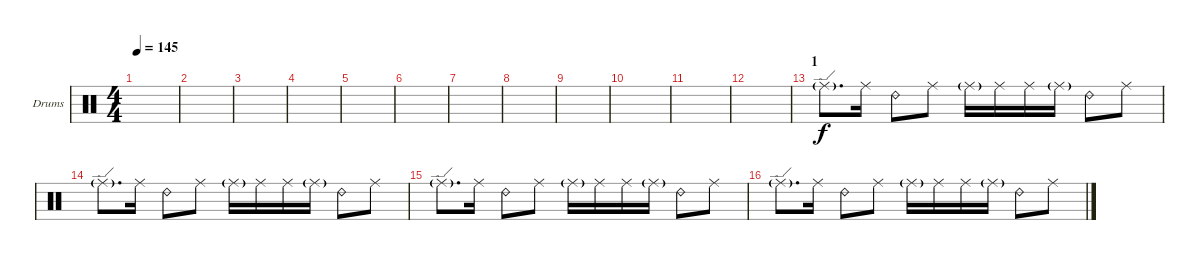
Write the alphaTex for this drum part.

\defaultSystemsLayout 4
\bracketExtendMode groupsimilarinstruments
\firstSystemTrackNameOrientation horizontal
\otherSystemsTrackNameOrientation horizontal
\track ("Drumkit" "Drums") {instrument percussion}
\staff {score}
\articulation defaults
\ts (4 4)
\tempo 145
\clef neutral
\scale
0.472222
\ks c
|
\scale
0.263889 |
\scale
0.263889 |
\scale
0.333333 |
\scale
0.333333 |
\scale
0.333333 |
\scale
0.333333 |
\scale
0.333333 |
\scale
0.333333 |
\scale
0.333333 |
\scale
0.333333 |
\scale
0.333333 |
\section ("" "1")
\scale
0.333333 "Ride (edge)"{g}.8{d} "Ride (middle)".16 "Ride (bell) 2".8 "Ride (middle)".8 "Ride (middle)"{g}.16 "Ride (middle)".16 "Ride (middle)".16 "Ride (middle)"{g}.16 "Ride (bell) 2".8 "Ride (middle)".8 |
\scale
0.333333 "Ride (edge)"{g}.8{d} "Ride (middle)".16 "Ride (bell) 2".8 "Ride (middle)".8 "Ride (middle)"{g}.16 "Ride (middle)".16 "Ride (middle)".16 "Ride (middle)"{g}.16 "Ride (bell) 2".8 "Ride (middle)".8 |
\scale
0.333333 "Ride (edge)"{g}.8{d} "Ride (middle)".16 "Ride (bell) 2".8 "Ride (middle)".8 "Ride (middle)"{g}.16 "Ride (middle)".16 "Ride (middle)".16 "Ride (middle)"{g}.16 "Ride (bell) 2".8 "Ride (middle)".8 |
\scale
0.333333 "Ride (edge)"{g}.8{d} "Ride (middle)".16 "Ride (bell) 2".8 "Ride (middle)".8 "Ride (middle)"{g}.16 "Ride (middle)".16 "Ride (middle)".16 "Ride (middle)"{g}.16 "Ride (bell) 2".8 "Ride (middle)".8
